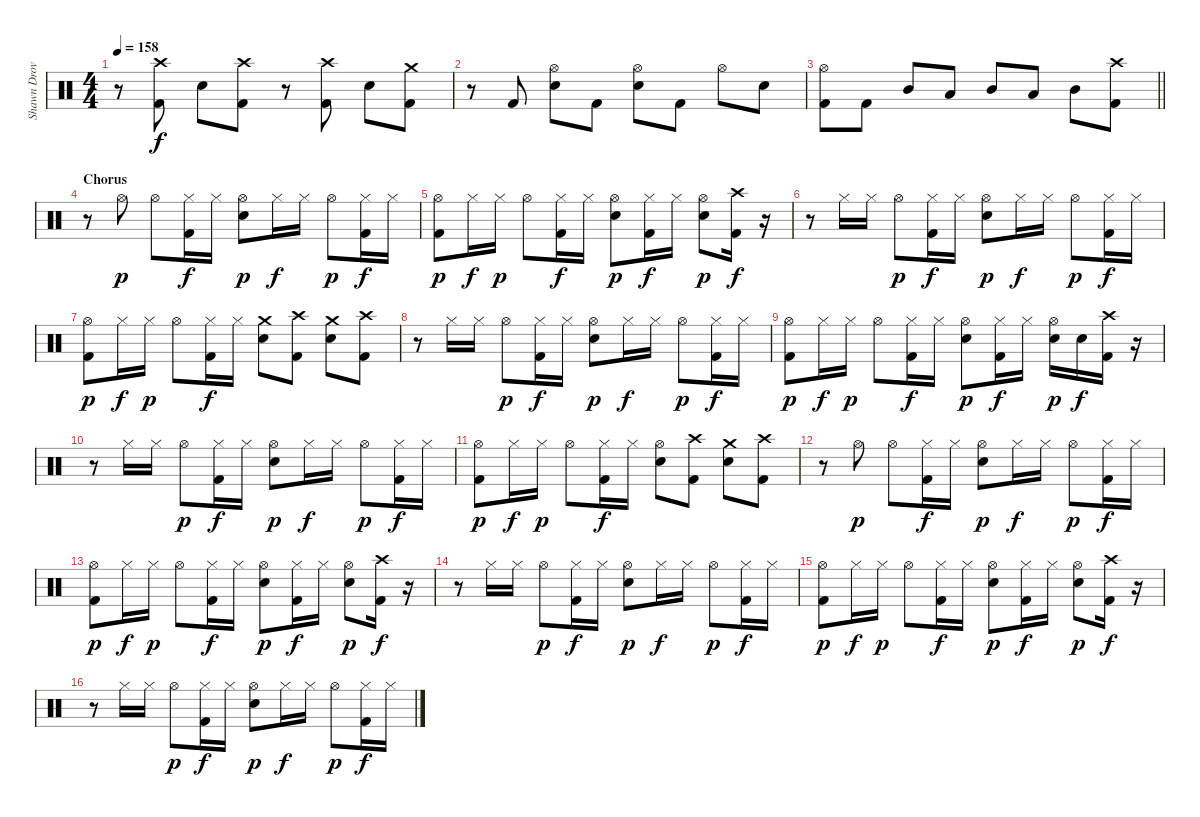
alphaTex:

\track ("Shawn Drover" "Shawn Drov") {instrument percussion}
\staff
\articulation defaults
\ts (4 4)
\tempo 158
\clef neutral
\ks c
r.8{dy f} ("Crash high (hit)" "Kick (hit) 2").8 "Snare (hit) 2".8 ("Crash high (hit)" "Kick (hit) 2").8 r.8 ("Crash high (hit)" "Kick (hit) 2").8 "Snare (hit) 2".8 ("Crash medium (hit)" "Kick (hit) 2").8 |
r.8 "Kick (hit) 2".8 ("Hi-Hat (open)" "Snare (hit) 2").8 "Kick (hit) 2".8 ("Hi-Hat (open)" "Snare (hit) 2").8 "Kick (hit) 2".8 "Hi-Hat (open)".8 "Snare (hit) 2".8 |
\barLineRight lightlight
("Hi-Hat (open)" "Kick (hit) 2").8 "Kick (hit) 2".8 "Mid Tom (hit)".8 "Low Tom (hit)".8 "Mid Tom (hit)".8 "Low Tom (hit)".8 "Mid Tom (hit)".8 ("Crash high (hit)" "Kick (hit) 2").8 |
\section ("" "Chorus")
r.8 "Hi-Hat (open)".8{dy p} "Hi-Hat (open)".8 ("Hi-Hat (closed)" "Kick (hit) 2").16{dy f} "Hi-Hat (closed)".16 ("Hi-Hat (open)" "Snare (hit) 2").8{dy p} "Hi-Hat (closed)".16{dy f} "Hi-Hat (closed)".16 "Hi-Hat (open)".8{dy p} ("Hi-Hat (closed)" "Kick (hit) 2").16{dy f} "Hi-Hat (closed)".16 |
("Hi-Hat (open)" "Kick (hit) 2").8{dy p} "Hi-Hat (closed)".16{dy f} "Hi-Hat (closed)".16{dy p} "Hi-Hat (open)".8 ("Hi-Hat (closed)" "Kick (hit) 2").16{dy f} "Hi-Hat (closed)".16 ("Hi-Hat (open)" "Snare (hit) 2").8{dy p} ("Hi-Hat (closed)" "Kick (hit) 2").16{dy f} "Hi-Hat (closed)".16 ("Hi-Hat (open)" "Snare (hit) 2").8{dy p} ("Crash high (hit)" "Kick (hit) 2").16{dy f} r.16 |
r.8 "Hi-Hat (closed)".16 "Hi-Hat (closed)".16 "Hi-Hat (open)".8{dy p} ("Hi-Hat (closed)" "Kick (hit) 2").16{dy f} "Hi-Hat (closed)".16 ("Hi-Hat (open)" "Snare (hit) 2").8{dy p} "Hi-Hat (closed)".16{dy f} "Hi-Hat (closed)".16 "Hi-Hat (open)".8{dy p} ("Hi-Hat (closed)" "Kick (hit) 2").16{dy f} "Hi-Hat (closed)".16 |
("Hi-Hat (open)" "Kick (hit) 2").8{dy p} "Hi-Hat (closed)".16{dy f} "Hi-Hat (closed)".16{dy p} "Hi-Hat (open)".8 ("Hi-Hat (closed)" "Kick (hit) 2").16{dy f} "Hi-Hat (closed)".16 ("Crash medium (hit)" "Snare (hit) 2").8 ("Crash high (hit)" "Kick (hit) 2").8 ("Crash medium (hit)" "Snare (hit) 2").8 ("Crash high (hit)" "Kick (hit) 2").8 |
r.8 "Hi-Hat (closed)".16 "Hi-Hat (closed)".16 "Hi-Hat (open)".8{dy p} ("Hi-Hat (closed)" "Kick (hit) 2").16{dy f} "Hi-Hat (closed)".16 ("Hi-Hat (open)" "Snare (hit) 2").8{dy p} "Hi-Hat (closed)".16{dy f} "Hi-Hat (closed)".16 "Hi-Hat (open)".8{dy p} ("Hi-Hat (closed)" "Kick (hit) 2").16{dy f} "Hi-Hat (closed)".16 |
("Hi-Hat (open)" "Kick (hit) 2").8{dy p} "Hi-Hat (closed)".16{dy f} "Hi-Hat (closed)".16{dy p} "Hi-Hat (open)".8 ("Hi-Hat (closed)" "Kick (hit) 2").16{dy f} "Hi-Hat (closed)".16 ("Hi-Hat (open)" "Snare (hit) 2").8{dy p} ("Hi-Hat (closed)" "Kick (hit) 2").16{dy f} "Hi-Hat (closed)".16 ("Hi-Hat (open)" "Snare (hit) 2").16{dy p} "Snare (hit) 2".16{dy f} ("Crash high (hit)" "Kick (hit) 2").16 r.16 |
r.8 "Hi-Hat (closed)".16 "Hi-Hat (closed)".16 "Hi-Hat (open)".8{dy p} ("Hi-Hat (closed)" "Kick (hit) 2").16{dy f} "Hi-Hat (closed)".16 ("Hi-Hat (open)" "Snare (hit) 2").8{dy p} "Hi-Hat (closed)".16{dy f} "Hi-Hat (closed)".16 "Hi-Hat (open)".8{dy p} ("Hi-Hat (closed)" "Kick (hit) 2").16{dy f} "Hi-Hat (closed)".16 |
("Hi-Hat (open)" "Kick (hit) 2").8{dy p} "Hi-Hat (closed)".16{dy f} "Hi-Hat (closed)".16{dy p} "Hi-Hat (open)".8 ("Hi-Hat (closed)" "Kick (hit) 2").16{dy f} "Hi-Hat (closed)".16 ("Hi-Hat (open)" "Snare (hit) 2").8 ("Crash high (hit)" "Kick (hit) 2").8 ("Crash medium (hit)" "Snare (hit) 2").8 ("Crash high (hit)" "Kick (hit) 2").8 |
r.8 "Hi-Hat (open)".8{dy p} "Hi-Hat (open)".8 ("Hi-Hat (closed)" "Kick (hit) 2").16{dy f} "Hi-Hat (closed)".16 ("Hi-Hat (open)" "Snare (hit) 2").8{dy p} "Hi-Hat (closed)".16{dy f} "Hi-Hat (closed)".16 "Hi-Hat (open)".8{dy p} ("Hi-Hat (closed)" "Kick (hit) 2").16{dy f} "Hi-Hat (closed)".16 |
("Hi-Hat (open)" "Kick (hit) 2").8{dy p} "Hi-Hat (closed)".16{dy f} "Hi-Hat (closed)".16{dy p} "Hi-Hat (open)".8 ("Hi-Hat (closed)" "Kick (hit) 2").16{dy f} "Hi-Hat (closed)".16 ("Hi-Hat (open)" "Snare (hit) 2").8{dy p} ("Hi-Hat (closed)" "Kick (hit) 2").16{dy f} "Hi-Hat (closed)".16 ("Hi-Hat (open)" "Snare (hit) 2").8{dy p} ("Crash high (hit)" "Kick (hit) 2").16{dy f} r.16 |
r.8 "Hi-Hat (closed)".16 "Hi-Hat (closed)".16 "Hi-Hat (open)".8{dy p} ("Hi-Hat (closed)" "Kick (hit) 2").16{dy f} "Hi-Hat (closed)".16 ("Hi-Hat (open)" "Snare (hit) 2").8{dy p} "Hi-Hat (closed)".16{dy f} "Hi-Hat (closed)".16 "Hi-Hat (open)".8{dy p} ("Hi-Hat (closed)" "Kick (hit) 2").16{dy f} "Hi-Hat (closed)".16 |
("Hi-Hat (open)" "Kick (hit) 2").8{dy p} "Hi-Hat (closed)".16{dy f} "Hi-Hat (closed)".16{dy p} "Hi-Hat (open)".8 ("Hi-Hat (closed)" "Kick (hit) 2").16{dy f} "Hi-Hat (closed)".16 ("Hi-Hat (open)" "Snare (hit) 2").8{dy p} ("Hi-Hat (closed)" "Kick (hit) 2").16{dy f} "Hi-Hat (closed)".16 ("Hi-Hat (open)" "Snare (hit) 2").8{dy p} ("Crash high (hit)" "Kick (hit) 2").16{dy f} r.16 |
r.8 "Hi-Hat (closed)".16 "Hi-Hat (closed)".16 "Hi-Hat (open)".8{dy p} ("Hi-Hat (closed)" "Kick (hit) 2").16{dy f} "Hi-Hat (closed)".16 ("Hi-Hat (open)" "Snare (hit) 2").8{dy p} "Hi-Hat (closed)".16{dy f} "Hi-Hat (closed)".16 "Hi-Hat (open)".8{dy p} ("Hi-Hat (closed)" "Kick (hit) 2").16{dy f} "Hi-Hat (closed)".16
